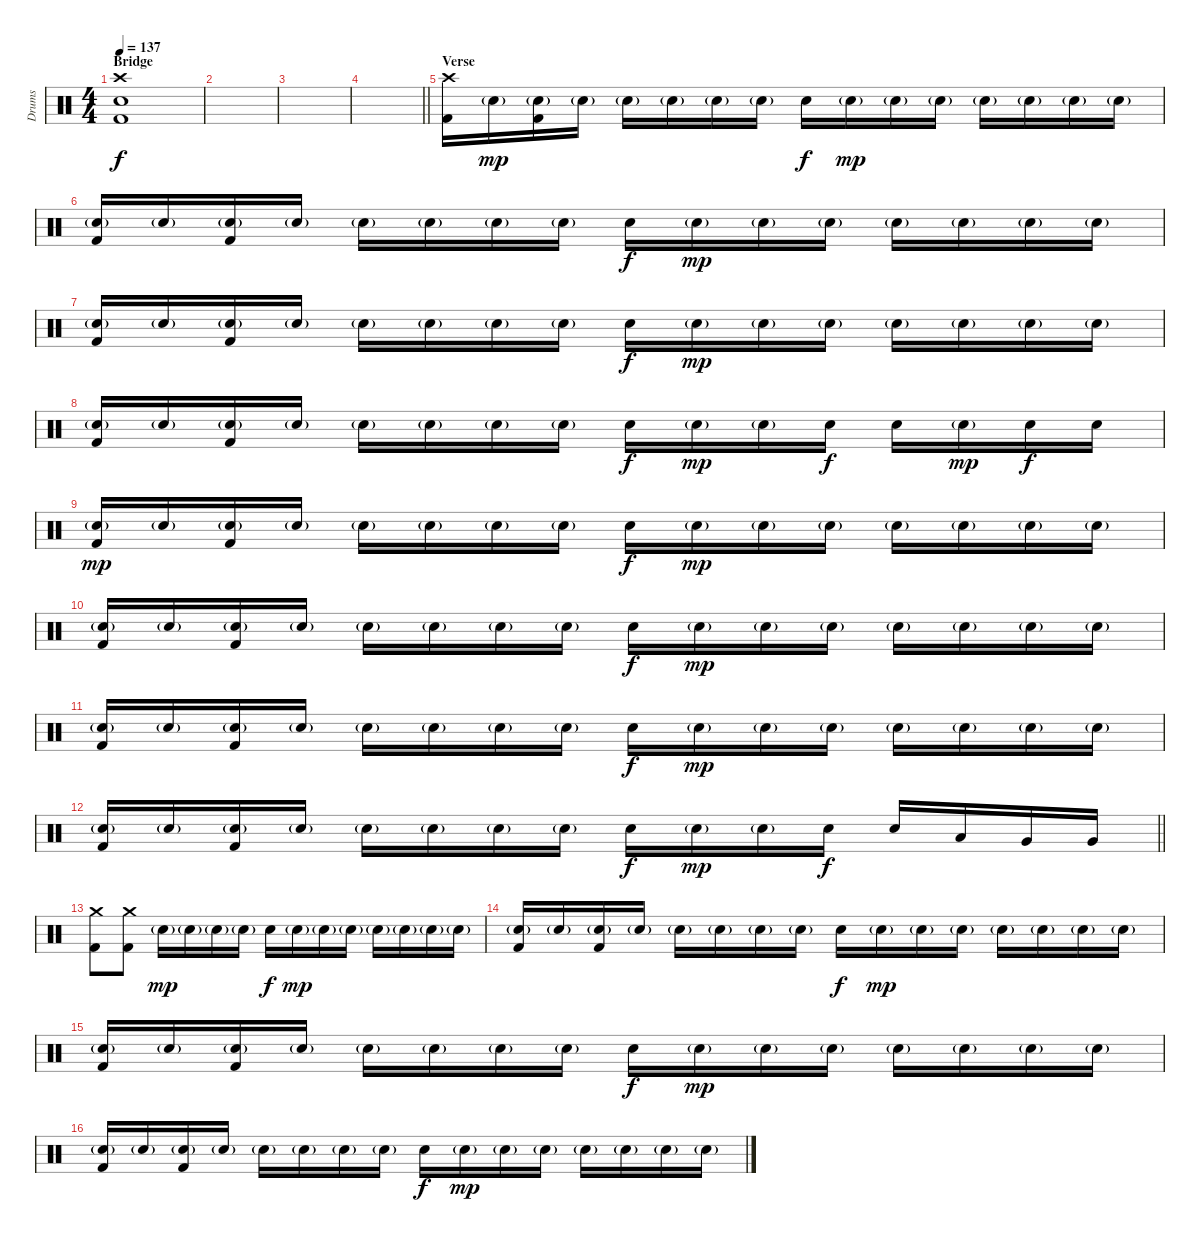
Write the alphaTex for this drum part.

\track ("Drums" "Drums") {instrument percussion}
\staff {score}
\articulation defaults
\ts (4 4)
\section ("" "Bridge")
\tempo 137
\clef neutral
\ks c
("Crash high (hit)" "Electric Snare (hit)" "Kick (hit) 2").1{dy f} |
|
|
\barLineRight lightlight
|
\section ("" "Verse")
("Crash high (hit)" "Kick (hit) 2").16 "Electric Snare (hit)"{g}.16{dy mp} ("Electric Snare (hit)"{g} "Kick (hit) 2").16 "Electric Snare (hit)"{g}.16 "Electric Snare (hit)"{g}.16 "Electric Snare (hit)"{g}.16 "Electric Snare (hit)"{g}.16 "Electric Snare (hit)"{g}.16 "Electric Snare (hit)".16{dy f} "Electric Snare (hit)"{g}.16{dy mp} "Electric Snare (hit)"{g}.16 "Electric Snare (hit)"{g}.16 "Electric Snare (hit)"{g}.16 "Electric Snare (hit)"{g}.16 "Electric Snare (hit)"{g}.16 "Electric Snare (hit)"{g}.16 |
("Electric Snare (hit)"{g} "Kick (hit) 2").16 "Electric Snare (hit)"{g}.16 ("Electric Snare (hit)"{g} "Kick (hit) 2").16 "Electric Snare (hit)"{g}.16 "Electric Snare (hit)"{g}.16 "Electric Snare (hit)"{g}.16 "Electric Snare (hit)"{g}.16 "Electric Snare (hit)"{g}.16 "Electric Snare (hit)".16{dy f} "Electric Snare (hit)"{g}.16{dy mp} "Electric Snare (hit)"{g}.16 "Electric Snare (hit)"{g}.16 "Electric Snare (hit)"{g}.16 "Electric Snare (hit)"{g}.16 "Electric Snare (hit)"{g}.16 "Electric Snare (hit)"{g}.16 |
("Electric Snare (hit)"{g} "Kick (hit) 2").16 "Electric Snare (hit)"{g}.16 ("Electric Snare (hit)"{g} "Kick (hit) 2").16 "Electric Snare (hit)"{g}.16 "Electric Snare (hit)"{g}.16 "Electric Snare (hit)"{g}.16 "Electric Snare (hit)"{g}.16 "Electric Snare (hit)"{g}.16 "Electric Snare (hit)".16{dy f} "Electric Snare (hit)"{g}.16{dy mp} "Electric Snare (hit)"{g}.16 "Electric Snare (hit)"{g}.16 "Electric Snare (hit)"{g}.16 "Electric Snare (hit)"{g}.16 "Electric Snare (hit)"{g}.16 "Electric Snare (hit)"{g}.16 |
("Electric Snare (hit)"{g} "Kick (hit) 2").16 "Electric Snare (hit)"{g}.16 ("Electric Snare (hit)"{g} "Kick (hit) 2").16 "Electric Snare (hit)"{g}.16 "Electric Snare (hit)"{g}.16 "Electric Snare (hit)"{g}.16 "Electric Snare (hit)"{g}.16 "Electric Snare (hit)"{g}.16 "Electric Snare (hit)".16{dy f} "Electric Snare (hit)"{g}.16{dy mp} "Electric Snare (hit)"{g}.16 "Electric Snare (hit)".16{dy f} "Electric Snare (hit)".16 "Electric Snare (hit)"{g}.16{dy mp} "Electric Snare (hit)".16{dy f} "Electric Snare (hit)".16 |
("Electric Snare (hit)"{g} "Kick (hit) 2").16{dy mp} "Electric Snare (hit)"{g}.16 ("Electric Snare (hit)"{g} "Kick (hit) 2").16 "Electric Snare (hit)"{g}.16 "Electric Snare (hit)"{g}.16 "Electric Snare (hit)"{g}.16 "Electric Snare (hit)"{g}.16 "Electric Snare (hit)"{g}.16 "Electric Snare (hit)".16{dy f} "Electric Snare (hit)"{g}.16{dy mp} "Electric Snare (hit)"{g}.16 "Electric Snare (hit)"{g}.16 "Electric Snare (hit)"{g}.16 "Electric Snare (hit)"{g}.16 "Electric Snare (hit)"{g}.16 "Electric Snare (hit)"{g}.16 |
("Electric Snare (hit)"{g} "Kick (hit) 2").16 "Electric Snare (hit)"{g}.16 ("Electric Snare (hit)"{g} "Kick (hit) 2").16 "Electric Snare (hit)"{g}.16 "Electric Snare (hit)"{g}.16 "Electric Snare (hit)"{g}.16 "Electric Snare (hit)"{g}.16 "Electric Snare (hit)"{g}.16 "Electric Snare (hit)".16{dy f} "Electric Snare (hit)"{g}.16{dy mp} "Electric Snare (hit)"{g}.16 "Electric Snare (hit)"{g}.16 "Electric Snare (hit)"{g}.16 "Electric Snare (hit)"{g}.16 "Electric Snare (hit)"{g}.16 "Electric Snare (hit)"{g}.16 |
("Electric Snare (hit)"{g} "Kick (hit) 2").16 "Electric Snare (hit)"{g}.16 ("Electric Snare (hit)"{g} "Kick (hit) 2").16 "Electric Snare (hit)"{g}.16 "Electric Snare (hit)"{g}.16 "Electric Snare (hit)"{g}.16 "Electric Snare (hit)"{g}.16 "Electric Snare (hit)"{g}.16 "Electric Snare (hit)".16{dy f} "Electric Snare (hit)"{g}.16{dy mp} "Electric Snare (hit)"{g}.16 "Electric Snare (hit)"{g}.16 "Electric Snare (hit)"{g}.16 "Electric Snare (hit)"{g}.16 "Electric Snare (hit)"{g}.16 "Electric Snare (hit)"{g}.16 |
\barLineRight lightlight
("Electric Snare (hit)"{g} "Kick (hit) 2").16 "Electric Snare (hit)"{g}.16 ("Electric Snare (hit)"{g} "Kick (hit) 2").16 "Electric Snare (hit)"{g}.16 "Electric Snare (hit)"{g}.16 "Electric Snare (hit)"{g}.16 "Electric Snare (hit)"{g}.16 "Electric Snare (hit)"{g}.16 "Electric Snare (hit)".16{dy f} "Electric Snare (hit)"{g}.16{dy mp} "Electric Snare (hit)"{g}.16 "Electric Snare (hit)".16{dy f} "Electric Snare (hit)".16 "Low Tom (hit)".16 "Very Low Tom (hit)".16 "Very Low Tom (hit)".16 |
("Crash medium (hit)" "Kick (hit) 2").8 ("Crash medium (hit)" "Kick (hit) 2").8 "Electric Snare (hit)"{g}.16{dy mp} "Electric Snare (hit)"{g}.16 "Electric Snare (hit)"{g}.16 "Electric Snare (hit)"{g}.16 "Electric Snare (hit)".16{dy f} "Electric Snare (hit)"{g}.16{dy mp} "Electric Snare (hit)"{g}.16 "Electric Snare (hit)"{g}.16 "Electric Snare (hit)"{g}.16 "Electric Snare (hit)"{g}.16 "Electric Snare (hit)"{g}.16 "Electric Snare (hit)"{g}.16 |
("Electric Snare (hit)"{g} "Kick (hit) 2").16 "Electric Snare (hit)"{g}.16 ("Electric Snare (hit)"{g} "Kick (hit) 2").16 "Electric Snare (hit)"{g}.16 "Electric Snare (hit)"{g}.16 "Electric Snare (hit)"{g}.16 "Electric Snare (hit)"{g}.16 "Electric Snare (hit)"{g}.16 "Electric Snare (hit)".16{dy f} "Electric Snare (hit)"{g}.16{dy mp} "Electric Snare (hit)"{g}.16 "Electric Snare (hit)"{g}.16 "Electric Snare (hit)"{g}.16 "Electric Snare (hit)"{g}.16 "Electric Snare (hit)"{g}.16 "Electric Snare (hit)"{g}.16 |
("Electric Snare (hit)"{g} "Kick (hit) 2").16 "Electric Snare (hit)"{g}.16 ("Electric Snare (hit)"{g} "Kick (hit) 2").16 "Electric Snare (hit)"{g}.16 "Electric Snare (hit)"{g}.16 "Electric Snare (hit)"{g}.16 "Electric Snare (hit)"{g}.16 "Electric Snare (hit)"{g}.16 "Electric Snare (hit)".16{dy f} "Electric Snare (hit)"{g}.16{dy mp} "Electric Snare (hit)"{g}.16 "Electric Snare (hit)"{g}.16 "Electric Snare (hit)"{g}.16 "Electric Snare (hit)"{g}.16 "Electric Snare (hit)"{g}.16 "Electric Snare (hit)"{g}.16 |
("Electric Snare (hit)"{g} "Kick (hit) 2").16 "Electric Snare (hit)"{g}.16 ("Electric Snare (hit)"{g} "Kick (hit) 2").16 "Electric Snare (hit)"{g}.16 "Electric Snare (hit)"{g}.16 "Electric Snare (hit)"{g}.16 "Electric Snare (hit)"{g}.16 "Electric Snare (hit)"{g}.16 "Electric Snare (hit)".16{dy f} "Electric Snare (hit)"{g}.16{dy mp} "Electric Snare (hit)"{g}.16 "Electric Snare (hit)"{g}.16 "Electric Snare (hit)"{g}.16 "Electric Snare (hit)"{g}.16 "Electric Snare (hit)"{g}.16 "Electric Snare (hit)"{g}.16
